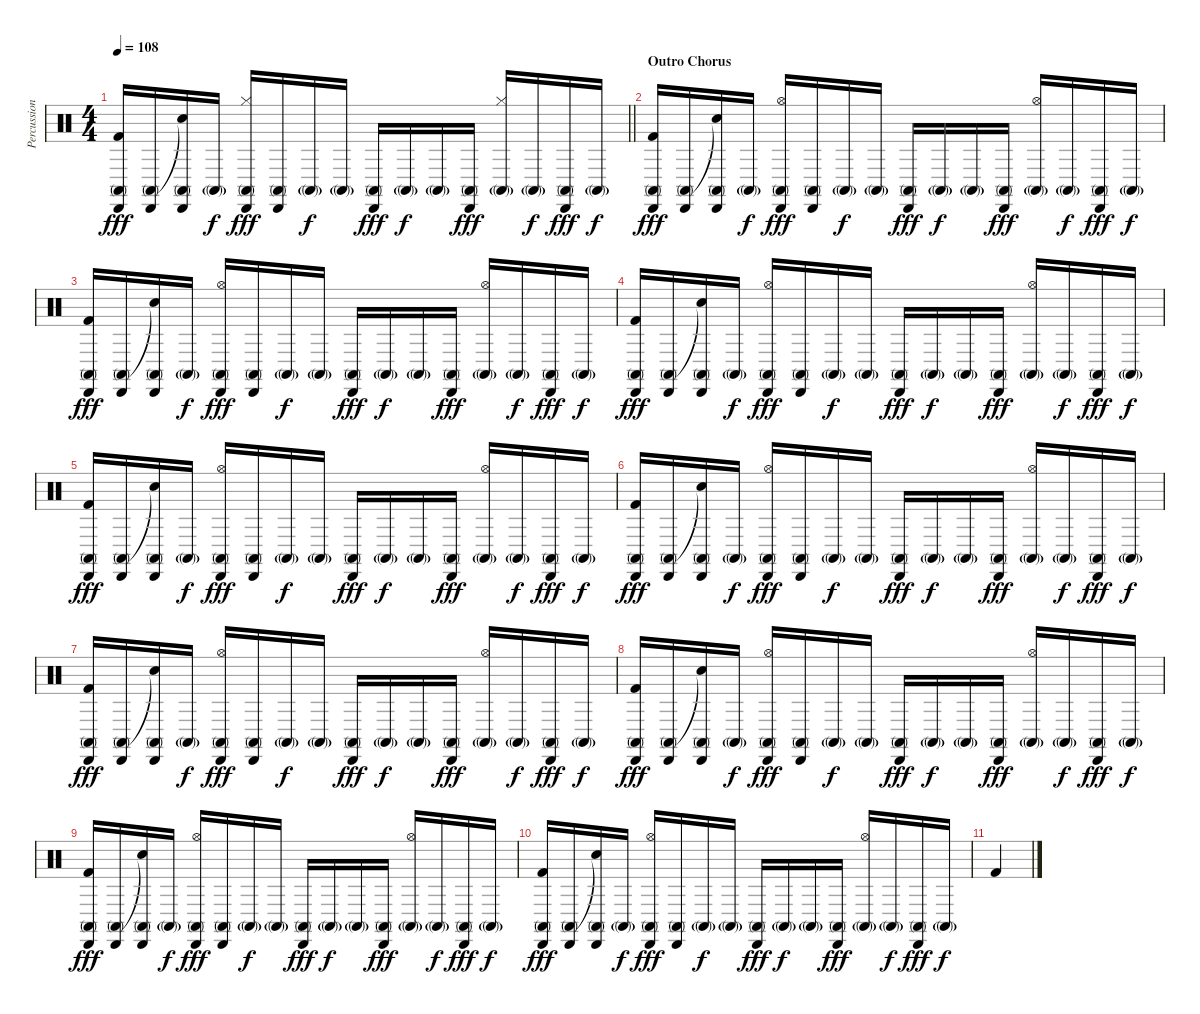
\track ("Percussion" "Percussion") {instrument percussion}
\staff {score}
\articulation defaults
\ts (4 4)
\tempo 108
\clef neutral
\barLineRight lightlight
\ks c
("Conga high (mute)" "Cabasa (hit)" "Kick (hit) 2").16{dy fff} ("Conga high (mute)" "Cabasa (hit)").16 ("Snare (hit)"{t} "Conga high (mute)" "Cabasa (hit)").16 "Conga high (mute)"{g}.16{dy f} ("Hi-Hat (closed)" "Conga high (mute)" "Cabasa (hit)").16{dy fff} ("Conga high (mute)" "Cabasa (hit)").16 "Conga high (mute)"{g}.16{dy f} "Conga high (mute)"{g}.16 ("Conga high (mute)" "Cabasa (hit)").16{dy fff} "Conga high (mute)"{g}.16{dy f} "Conga high (mute)"{g}.16 ("Conga high (mute)" "Cabasa (hit)").16{dy fff} ("Hi-Hat (closed)" "Conga high (mute)"{g}).16 "Conga high (mute)"{g}.16{dy f} ("Conga high (mute)" "Cabasa (hit)").16{dy fff} "Conga high (mute)"{g}.16{dy f} |
\section ("" "Outro Chorus")
("Conga high (mute)" "Cabasa (hit)" "Kick (hit) 2").16{dy fff} ("Conga high (mute)" "Cabasa (hit)").16 ("Snare (hit)"{t} "Conga high (mute)" "Cabasa (hit)").16 "Conga high (mute)"{g}.16{dy f} ("Hi-Hat (open)" "Conga high (mute)" "Cabasa (hit)").16{dy fff} ("Conga high (mute)" "Cabasa (hit)").16 "Conga high (mute)"{g}.16{dy f} "Conga high (mute)"{g}.16 ("Conga high (mute)" "Cabasa (hit)").16{dy fff} "Conga high (mute)"{g}.16{dy f} "Conga high (mute)"{g}.16 ("Conga high (mute)" "Cabasa (hit)").16{dy fff} ("Hi-Hat (open)" "Conga high (mute)"{g}).16 "Conga high (mute)"{g}.16{dy f} ("Conga high (mute)" "Cabasa (hit)").16{dy fff} "Conga high (mute)"{g}.16{dy f} |
("Conga high (mute)" "Cabasa (hit)" "Kick (hit) 2").16{dy fff} ("Conga high (mute)" "Cabasa (hit)").16 ("Snare (hit)"{t} "Conga high (mute)" "Cabasa (hit)").16 "Conga high (mute)"{g}.16{dy f} ("Hi-Hat (open)" "Conga high (mute)" "Cabasa (hit)").16{dy fff} ("Conga high (mute)" "Cabasa (hit)").16 "Conga high (mute)"{g}.16{dy f} "Conga high (mute)"{g}.16 ("Conga high (mute)" "Cabasa (hit)").16{dy fff} "Conga high (mute)"{g}.16{dy f} "Conga high (mute)"{g}.16 ("Conga high (mute)" "Cabasa (hit)").16{dy fff} ("Hi-Hat (open)" "Conga high (mute)"{g}).16 "Conga high (mute)"{g}.16{dy f} ("Conga high (mute)" "Cabasa (hit)").16{dy fff} "Conga high (mute)"{g}.16{dy f} |
("Conga high (mute)" "Cabasa (hit)" "Kick (hit) 2").16{dy fff} ("Conga high (mute)" "Cabasa (hit)").16 ("Snare (hit)"{t} "Conga high (mute)" "Cabasa (hit)").16 "Conga high (mute)"{g}.16{dy f} ("Hi-Hat (open)" "Conga high (mute)" "Cabasa (hit)").16{dy fff} ("Conga high (mute)" "Cabasa (hit)").16 "Conga high (mute)"{g}.16{dy f} "Conga high (mute)"{g}.16 ("Conga high (mute)" "Cabasa (hit)").16{dy fff} "Conga high (mute)"{g}.16{dy f} "Conga high (mute)"{g}.16 ("Conga high (mute)" "Cabasa (hit)").16{dy fff} ("Hi-Hat (open)" "Conga high (mute)"{g}).16 "Conga high (mute)"{g}.16{dy f} ("Conga high (mute)" "Cabasa (hit)").16{dy fff} "Conga high (mute)"{g}.16{dy f} |
("Conga high (mute)" "Cabasa (hit)" "Kick (hit) 2").16{dy fff} ("Conga high (mute)" "Cabasa (hit)").16 ("Snare (hit)"{t} "Conga high (mute)" "Cabasa (hit)").16 "Conga high (mute)"{g}.16{dy f} ("Hi-Hat (open)" "Conga high (mute)" "Cabasa (hit)").16{dy fff} ("Conga high (mute)" "Cabasa (hit)").16 "Conga high (mute)"{g}.16{dy f} "Conga high (mute)"{g}.16 ("Conga high (mute)" "Cabasa (hit)").16{dy fff} "Conga high (mute)"{g}.16{dy f} "Conga high (mute)"{g}.16 ("Conga high (mute)" "Cabasa (hit)").16{dy fff} ("Hi-Hat (open)" "Conga high (mute)"{g}).16 "Conga high (mute)"{g}.16{dy f} ("Conga high (mute)" "Cabasa (hit)").16{dy fff} "Conga high (mute)"{g}.16{dy f} |
("Conga high (mute)" "Cabasa (hit)" "Kick (hit) 2").16{dy fff} ("Conga high (mute)" "Cabasa (hit)").16 ("Snare (hit)"{t} "Conga high (mute)" "Cabasa (hit)").16 "Conga high (mute)"{g}.16{dy f} ("Hi-Hat (open)" "Conga high (mute)" "Cabasa (hit)").16{dy fff} ("Conga high (mute)" "Cabasa (hit)").16 "Conga high (mute)"{g}.16{dy f} "Conga high (mute)"{g}.16 ("Conga high (mute)" "Cabasa (hit)").16{dy fff} "Conga high (mute)"{g}.16{dy f} "Conga high (mute)"{g}.16 ("Conga high (mute)" "Cabasa (hit)").16{dy fff} ("Hi-Hat (open)" "Conga high (mute)"{g}).16 "Conga high (mute)"{g}.16{dy f} ("Conga high (mute)" "Cabasa (hit)").16{dy fff} "Conga high (mute)"{g}.16{dy f} |
("Conga high (mute)" "Cabasa (hit)" "Kick (hit) 2").16{dy fff} ("Conga high (mute)" "Cabasa (hit)").16 ("Snare (hit)"{t} "Conga high (mute)" "Cabasa (hit)").16 "Conga high (mute)"{g}.16{dy f} ("Hi-Hat (open)" "Conga high (mute)" "Cabasa (hit)").16{dy fff} ("Conga high (mute)" "Cabasa (hit)").16 "Conga high (mute)"{g}.16{dy f} "Conga high (mute)"{g}.16 ("Conga high (mute)" "Cabasa (hit)").16{dy fff} "Conga high (mute)"{g}.16{dy f} "Conga high (mute)"{g}.16 ("Conga high (mute)" "Cabasa (hit)").16{dy fff} ("Hi-Hat (open)" "Conga high (mute)"{g}).16 "Conga high (mute)"{g}.16{dy f} ("Conga high (mute)" "Cabasa (hit)").16{dy fff} "Conga high (mute)"{g}.16{dy f} |
("Conga high (mute)" "Cabasa (hit)" "Kick (hit) 2").16{dy fff} ("Conga high (mute)" "Cabasa (hit)").16 ("Snare (hit)"{t} "Conga high (mute)" "Cabasa (hit)").16 "Conga high (mute)"{g}.16{dy f} ("Hi-Hat (open)" "Conga high (mute)" "Cabasa (hit)").16{dy fff} ("Conga high (mute)" "Cabasa (hit)").16 "Conga high (mute)"{g}.16{dy f} "Conga high (mute)"{g}.16 ("Conga high (mute)" "Cabasa (hit)").16{dy fff} "Conga high (mute)"{g}.16{dy f} "Conga high (mute)"{g}.16 ("Conga high (mute)" "Cabasa (hit)").16{dy fff} ("Hi-Hat (open)" "Conga high (mute)"{g}).16 "Conga high (mute)"{g}.16{dy f} ("Conga high (mute)" "Cabasa (hit)").16{dy fff} "Conga high (mute)"{g}.16{dy f} |
("Conga high (mute)" "Cabasa (hit)" "Kick (hit) 2").16{dy fff} ("Conga high (mute)" "Cabasa (hit)").16 ("Snare (hit)"{t} "Conga high (mute)" "Cabasa (hit)").16 "Conga high (mute)"{g}.16{dy f} ("Hi-Hat (open)" "Conga high (mute)" "Cabasa (hit)").16{dy fff} ("Conga high (mute)" "Cabasa (hit)").16 "Conga high (mute)"{g}.16{dy f} "Conga high (mute)"{g}.16 ("Conga high (mute)" "Cabasa (hit)").16{dy fff} "Conga high (mute)"{g}.16{dy f} "Conga high (mute)"{g}.16 ("Conga high (mute)" "Cabasa (hit)").16{dy fff} ("Hi-Hat (open)" "Conga high (mute)"{g}).16 "Conga high (mute)"{g}.16{dy f} ("Conga high (mute)" "Cabasa (hit)").16{dy fff} "Conga high (mute)"{g}.16{dy f} |
("Conga high (mute)" "Cabasa (hit)" "Kick (hit) 2").16{dy fff} ("Conga high (mute)" "Cabasa (hit)").16 ("Snare (hit)"{t} "Conga high (mute)" "Cabasa (hit)").16 "Conga high (mute)"{g}.16{dy f} ("Hi-Hat (open)" "Conga high (mute)" "Cabasa (hit)").16{dy fff} ("Conga high (mute)" "Cabasa (hit)").16 "Conga high (mute)"{g}.16{dy f} "Conga high (mute)"{g}.16 ("Conga high (mute)" "Cabasa (hit)").16{dy fff} "Conga high (mute)"{g}.16{dy f} "Conga high (mute)"{g}.16 ("Conga high (mute)" "Cabasa (hit)").16{dy fff} ("Hi-Hat (open)" "Conga high (mute)"{g}).16 "Conga high (mute)"{g}.16{dy f} ("Conga high (mute)" "Cabasa (hit)").16{dy fff} "Conga high (mute)"{g}.16{dy f} |
"Kick (hit) 2".4
